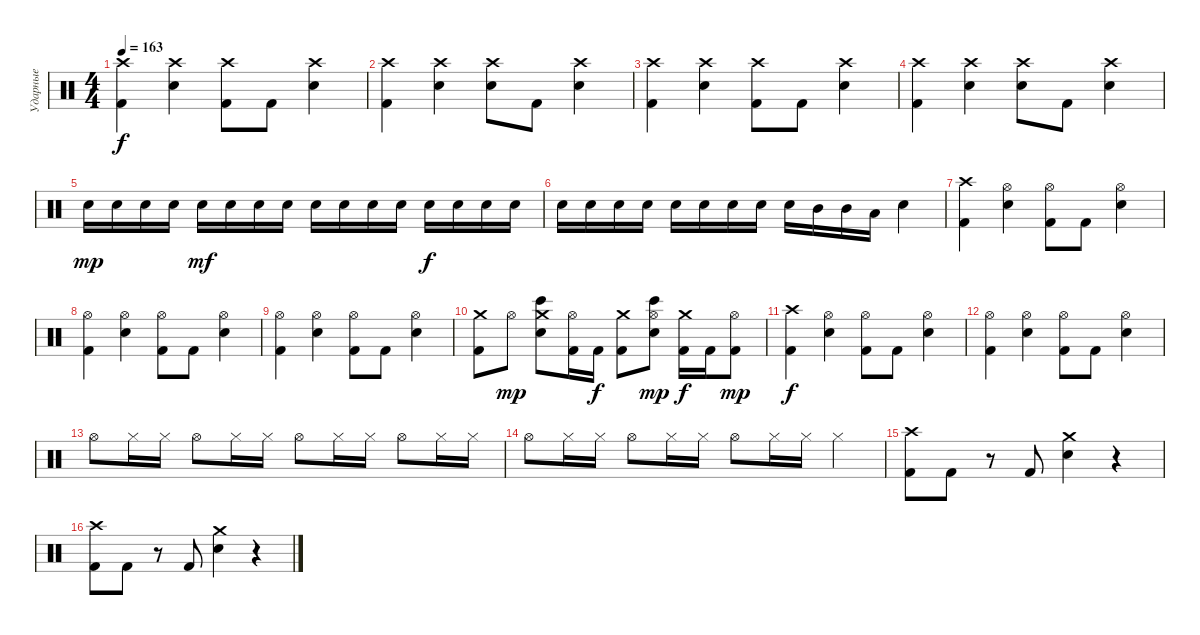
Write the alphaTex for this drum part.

\track ("Ударные" "Ударные") {instrument percussion}
\staff {score}
\articulation defaults
\ts (4 4)
\tempo 163
\clef neutral
\ks c
("Kick (hit) 2" "Crash high (hit)").4{dy f} ("Snare (hit) 2" "Crash high (hit)").4 ("Kick (hit) 2" "Crash high (hit)").8 "Kick (hit) 2".8 ("Snare (hit) 2" "Crash high (hit)").4 |
("Kick (hit) 2" "Crash high (hit)").4 ("Snare (hit) 2" "Crash high (hit)").4 ("Snare (hit) 2" "Crash high (hit)").8 "Kick (hit) 2".8 ("Snare (hit) 2" "Crash high (hit)").4 |
("Kick (hit) 2" "Crash high (hit)").4 ("Snare (hit) 2" "Crash high (hit)").4 ("Kick (hit) 2" "Crash high (hit)").8 "Kick (hit) 2".8 ("Snare (hit) 2" "Crash high (hit)").4 |
("Kick (hit) 2" "Crash high (hit)").4 ("Snare (hit) 2" "Crash high (hit)").4 ("Snare (hit) 2" "Crash high (hit)").8 "Kick (hit) 2".8 ("Snare (hit) 2" "Crash high (hit)").4 |
"Electric Snare (hit)".16{dy mp} "Electric Snare (hit)".16 "Electric Snare (hit)".16 "Electric Snare (hit)".16 "Electric Snare (hit)".16{dy mf} "Electric Snare (hit)".16 "Electric Snare (hit)".16 "Electric Snare (hit)".16 "Electric Snare (hit)".16 "Electric Snare (hit)".16 "Electric Snare (hit)".16 "Electric Snare (hit)".16 "Electric Snare (hit)".16{dy f} "Electric Snare (hit)".16 "Electric Snare (hit)".16 "Electric Snare (hit)".16 |
"Electric Snare (hit)".16 "Electric Snare (hit)".16 "Electric Snare (hit)".16 "Electric Snare (hit)".16 "Electric Snare (hit)".16 "Electric Snare (hit)".16 "Electric Snare (hit)".16 "Electric Snare (hit)".16 "Electric Snare (hit)".16 "Mid Tom (hit)".16 "Mid Tom (hit)".16 "Low Tom (hit)".16 "Electric Snare (hit)".4 |
("Kick (hit) 2" "Crash high (hit)").4 ("Snare (hit) 2" "Hi-Hat (open)").4 ("Kick (hit) 2" "Hi-Hat (open)").8 "Kick (hit) 2".8 ("Snare (hit) 2" "Hi-Hat (open)").4 |
("Kick (hit) 2" "Hi-Hat (open)").4 ("Snare (hit) 2" "Hi-Hat (open)").4 ("Kick (hit) 2" "Hi-Hat (open)").8 "Kick (hit) 2".8 ("Snare (hit) 2" "Hi-Hat (open)").4 |
("Kick (hit) 2" "Hi-Hat (open)").4 ("Snare (hit) 2" "Hi-Hat (open)").4 ("Kick (hit) 2" "Hi-Hat (open)").8 "Kick (hit) 2".8 ("Snare (hit) 2" "Hi-Hat (open)").4 |
("Kick (hit) 2" "Crash medium (hit)").8 "Hi-Hat (open)".8{dy mp} ("Electric Snare (hit)" "Bongo High (hit)" "Crash medium (hit)").8 ("Kick (hit) 2" "Hi-Hat (open)").16 "Kick (hit) 2".16{dy f} ("Kick (hit) 2" "Crash medium (hit)").8 ("Electric Snare (hit)" "Bongo High (hit)" "Hi-Hat (open)").8{dy mp} ("Kick (hit) 2" "Crash medium (hit)").16{dy f} "Kick (hit) 2".16 ("Kick (hit) 2" "Hi-Hat (open)").8{dy mp} |
("Kick (hit) 2" "Crash high (hit)").4{dy f} ("Snare (hit) 2" "Hi-Hat (open)").4 ("Kick (hit) 2" "Hi-Hat (open)").8 "Kick (hit) 2".8 ("Snare (hit) 2" "Hi-Hat (open)").4 |
("Kick (hit) 2" "Hi-Hat (open)").4 ("Snare (hit) 2" "Hi-Hat (open)").4 ("Kick (hit) 2" "Hi-Hat (open)").8 "Kick (hit) 2".8 ("Snare (hit) 2" "Hi-Hat (open)").4 |
"Hi-Hat (open)".8 "Hi-Hat (closed)".16 "Hi-Hat (closed)".16 "Hi-Hat (open)".8 "Hi-Hat (closed)".16 "Hi-Hat (closed)".16 "Hi-Hat (open)".8 "Hi-Hat (closed)".16 "Hi-Hat (closed)".16 "Hi-Hat (open)".8 "Hi-Hat (closed)".16 "Hi-Hat (closed)".16 |
"Hi-Hat (open)".8 "Hi-Hat (closed)".16 "Hi-Hat (closed)".16 "Hi-Hat (open)".8 "Hi-Hat (closed)".16 "Hi-Hat (closed)".16 "Hi-Hat (open)".8 "Hi-Hat (closed)".16 "Hi-Hat (closed)".16 "Hi-Hat (closed)".4 |
("Kick (hit) 2" "Crash high (hit)").8 "Kick (hit) 2".8 r.8 "Kick (hit) 2".8 ("Snare (hit) 2" "Crash medium (hit)").4 r.4 |
("Kick (hit) 2" "Crash high (hit)").8 "Kick (hit) 2".8 r.8 "Kick (hit) 2".8 ("Snare (hit) 2" "Crash medium (hit)").4 r.4
